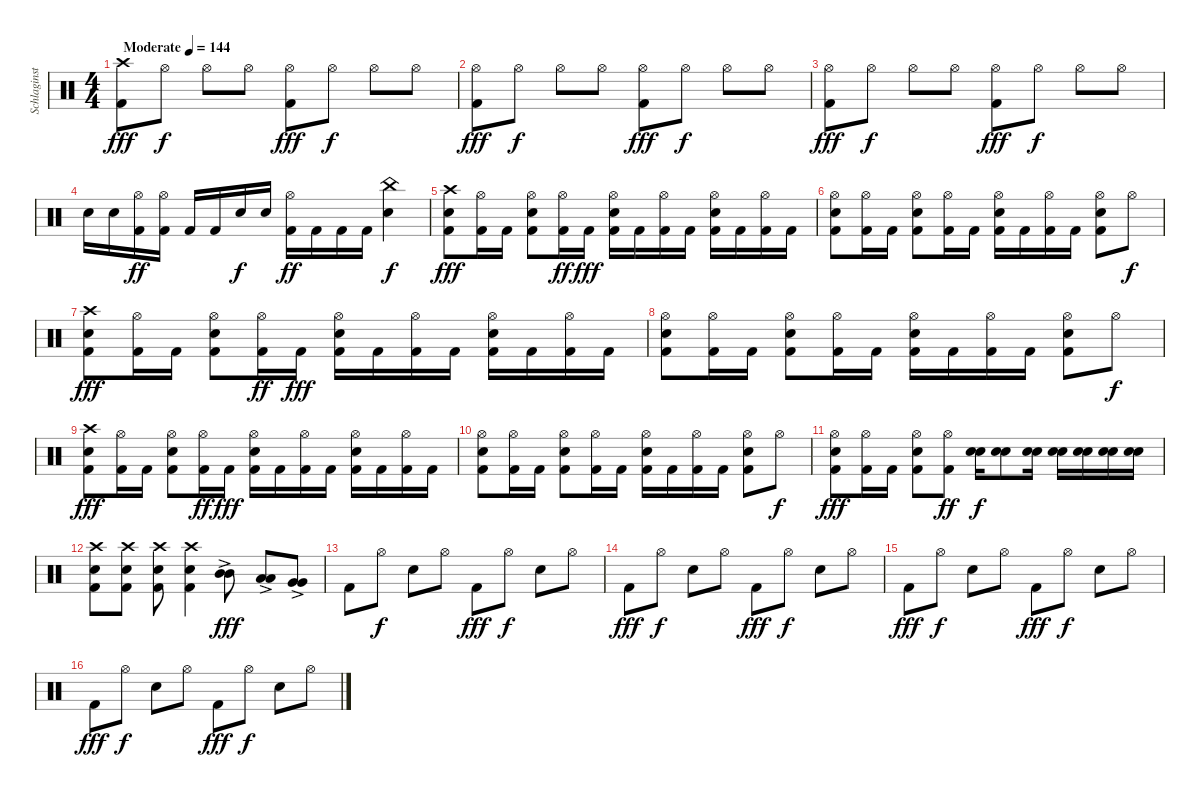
\track ("Schlaginstrumente - Auswahl" "Schlaginst") {instrument percussion}
\staff {score}
\articulation defaults
\ts (4 4)
\tempo (144 "Moderate")
\clef neutral
\ks c
("Crash high (hit)" "Kick (hit) 2").8{dy fff} "Hi-Hat (open)".8{dy f} "Hi-Hat (open)".8 "Hi-Hat (open)".8 ("Hi-Hat (open)" "Kick (hit) 2").8{dy fff} "Hi-Hat (open)".8{dy f} "Hi-Hat (open)".8 "Hi-Hat (open)".8 |
("Hi-Hat (open)" "Kick (hit) 2").8{dy fff} "Hi-Hat (open)".8{dy f} "Hi-Hat (open)".8 "Hi-Hat (open)".8 ("Hi-Hat (open)" "Kick (hit) 2").8{dy fff} "Hi-Hat (open)".8{dy f} "Hi-Hat (open)".8 "Hi-Hat (open)".8 |
("Hi-Hat (open)" "Kick (hit) 2").8{dy fff} "Hi-Hat (open)".8{dy f} "Hi-Hat (open)".8 "Hi-Hat (open)".8 ("Hi-Hat (open)" "Kick (hit) 2").8{dy fff} "Hi-Hat (open)".8{dy f} "Hi-Hat (open)".8 "Hi-Hat (open)".8 |
"Snare (hit) 2".16 "Snare (hit) 2".16 ("Hi-Hat (open)" "Kick (hit) 2").16{dy ff} ("Hi-Hat (open)" "Kick (hit) 2").16 "Kick (hit) 2".16 "Kick (hit) 2".16 "Snare (hit) 2".16{dy f} "Snare (hit) 2".16 ("Hi-Hat (open)" "Kick (hit) 2").16{dy ff} "Kick (hit) 2".16 "Kick (hit) 2".16 "Kick (hit) 2".16 ("China (hit)" "Snare (hit) 2").4{dy f} |
("Snare (hit) 2" "Crash high (hit)" "Kick (hit) 2").8{dy fff} ("Hi-Hat (open)" "Kick (hit) 2").16 "Kick (hit) 2".16 ("Snare (hit) 2" "Hi-Hat (open)" "Kick (hit) 2").8 ("Hi-Hat (open)" "Kick (hit) 2").16{dy ff} "Kick (hit) 2".16{dy fff} ("Snare (hit) 2" "Hi-Hat (open)" "Kick (hit) 2").16 "Kick (hit) 2".16 ("Hi-Hat (open)" "Kick (hit) 2").16 "Kick (hit) 2".16 ("Snare (hit) 2" "Hi-Hat (open)" "Kick (hit) 2").16 "Kick (hit) 2".16 ("Hi-Hat (open)" "Kick (hit) 2").16 "Kick (hit) 2".16 |
("Snare (hit) 2" "Hi-Hat (open)" "Kick (hit) 2").8 ("Hi-Hat (open)" "Kick (hit) 2").16 "Kick (hit) 2".16 ("Snare (hit) 2" "Hi-Hat (open)" "Kick (hit) 2").8 ("Hi-Hat (open)" "Kick (hit) 2").16 "Kick (hit) 2".16 ("Snare (hit) 2" "Hi-Hat (open)" "Kick (hit) 2").16 "Kick (hit) 2".16 ("Hi-Hat (open)" "Kick (hit) 2").16 "Kick (hit) 2".16 ("Snare (hit) 2" "Hi-Hat (open)" "Kick (hit) 2").8 "Hi-Hat (open)".8{dy f} |
("Snare (hit) 2" "Crash high (hit)" "Kick (hit) 2").8{dy fff} ("Hi-Hat (open)" "Kick (hit) 2").16 "Kick (hit) 2".16 ("Snare (hit) 2" "Hi-Hat (open)" "Kick (hit) 2").8 ("Hi-Hat (open)" "Kick (hit) 2").16{dy ff} "Kick (hit) 2".16{dy fff} ("Snare (hit) 2" "Hi-Hat (open)" "Kick (hit) 2").16 "Kick (hit) 2".16 ("Hi-Hat (open)" "Kick (hit) 2").16 "Kick (hit) 2".16 ("Snare (hit) 2" "Hi-Hat (open)" "Kick (hit) 2").16 "Kick (hit) 2".16 ("Hi-Hat (open)" "Kick (hit) 2").16 "Kick (hit) 2".16 |
("Snare (hit) 2" "Hi-Hat (open)" "Kick (hit) 2").8 ("Hi-Hat (open)" "Kick (hit) 2").16 "Kick (hit) 2".16 ("Snare (hit) 2" "Hi-Hat (open)" "Kick (hit) 2").8 ("Hi-Hat (open)" "Kick (hit) 2").16 "Kick (hit) 2".16 ("Snare (hit) 2" "Hi-Hat (open)" "Kick (hit) 2").16 "Kick (hit) 2".16 ("Hi-Hat (open)" "Kick (hit) 2").16 "Kick (hit) 2".16 ("Snare (hit) 2" "Hi-Hat (open)" "Kick (hit) 2").8 "Hi-Hat (open)".8{dy f} |
("Snare (hit) 2" "Crash high (hit)" "Kick (hit) 2").8{dy fff} ("Hi-Hat (open)" "Kick (hit) 2").16 "Kick (hit) 2".16 ("Snare (hit) 2" "Hi-Hat (open)" "Kick (hit) 2").8 ("Hi-Hat (open)" "Kick (hit) 2").16{dy ff} "Kick (hit) 2".16{dy fff} ("Snare (hit) 2" "Hi-Hat (open)" "Kick (hit) 2").16 "Kick (hit) 2".16 ("Hi-Hat (open)" "Kick (hit) 2").16 "Kick (hit) 2".16 ("Snare (hit) 2" "Hi-Hat (open)" "Kick (hit) 2").16 "Kick (hit) 2".16 ("Hi-Hat (open)" "Kick (hit) 2").16 "Kick (hit) 2".16 |
("Snare (hit) 2" "Hi-Hat (open)" "Kick (hit) 2").8 ("Hi-Hat (open)" "Kick (hit) 2").16 "Kick (hit) 2".16 ("Snare (hit) 2" "Hi-Hat (open)" "Kick (hit) 2").8 ("Hi-Hat (open)" "Kick (hit) 2").16 "Kick (hit) 2".16 ("Snare (hit) 2" "Hi-Hat (open)" "Kick (hit) 2").16 "Kick (hit) 2".16 ("Hi-Hat (open)" "Kick (hit) 2").16 "Kick (hit) 2".16 ("Snare (hit) 2" "Hi-Hat (open)" "Kick (hit) 2").8 "Hi-Hat (open)".8{dy f} |
("Snare (hit) 2" "Hi-Hat (open)" "Kick (hit) 2").8{dy fff} ("Hi-Hat (open)" "Kick (hit) 2").16 "Kick (hit) 2".16 ("Snare (hit) 2" "Hi-Hat (open)" "Kick (hit) 2").8 ("Hi-Hat (open)" "Kick (hit) 2").8{dy ff} ("Snare (hit) 2" "Snare (hit) 2").16{dy f} ("Snare (hit) 2" "Snare (hit) 2").8 ("Snare (hit) 2" "Snare (hit) 2").16 ("Snare (hit) 2" "Snare (hit) 2").16 ("Snare (hit) 2" "Snare (hit) 2").16 ("Snare (hit) 2" "Snare (hit) 2").16 ("Snare (hit) 2" "Snare (hit) 2").16 |
("Crash high (hit)" "Snare (hit) 2" "Kick (hit) 2").8 ("Crash high (hit)" "Snare (hit) 2" "Kick (hit) 2").8 ("Crash high (hit)" "Snare (hit) 2" "Kick (hit) 2").8 ("Crash high (hit)" "Snare (hit) 2" "Kick (hit) 2").4 ("Mid Tom (hit)"{ac} "Mid Tom (hit)"{ac}).8{dy fff} ("Low Tom (hit)"{ac} "Low Tom (hit)"{ac}).8 ("Very Low Tom (hit)"{ac} "Very Low Tom (hit)"{ac}).8 |
"Kick (hit) 2".8 "Hi-Hat (open)".8{dy f} "Snare (hit) 2".8 "Hi-Hat (open)".8 "Kick (hit) 2".8{dy fff} "Hi-Hat (open)".8{dy f} "Snare (hit) 2".8 "Hi-Hat (open)".8 |
"Kick (hit) 2".8{dy fff} "Hi-Hat (open)".8{dy f} "Snare (hit) 2".8 "Hi-Hat (open)".8 "Kick (hit) 2".8{dy fff} "Hi-Hat (open)".8{dy f} "Snare (hit) 2".8 "Hi-Hat (open)".8 |
"Kick (hit) 2".8{dy fff} "Hi-Hat (open)".8{dy f} "Snare (hit) 2".8 "Hi-Hat (open)".8 "Kick (hit) 2".8{dy fff} "Hi-Hat (open)".8{dy f} "Snare (hit) 2".8 "Hi-Hat (open)".8 |
"Kick (hit) 2".8{dy fff} "Hi-Hat (open)".8{dy f} "Snare (hit) 2".8 "Hi-Hat (open)".8 "Kick (hit) 2".8{dy fff} "Hi-Hat (open)".8{dy f} "Snare (hit) 2".8 "Hi-Hat (open)".8
